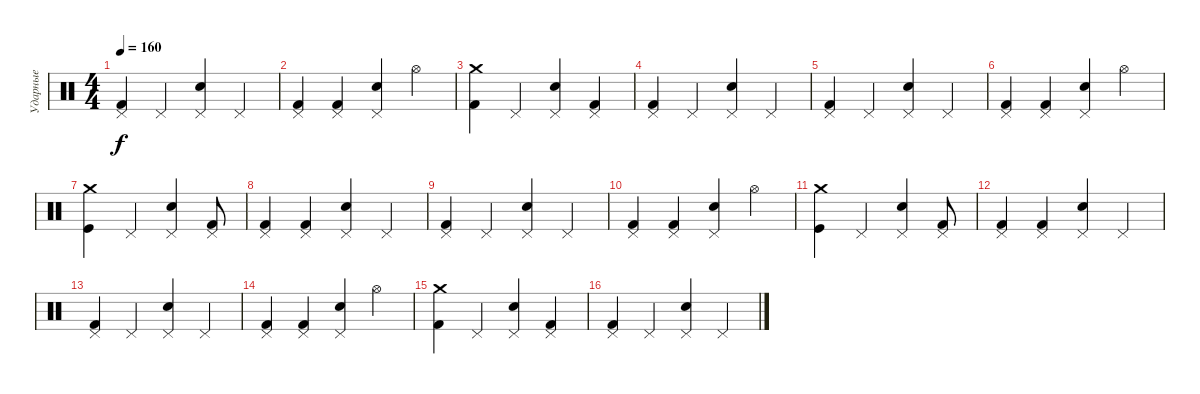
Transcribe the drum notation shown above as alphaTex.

\track ("Ударные" "Ударные") {instrument percussion}
\staff {score}
\articulation defaults
\ts (4 4)
\tempo 160
\clef neutral
\ks c
("Pedal Hi-Hat (hit)" "Kick (hit) 2").4{dy f} "Pedal Hi-Hat (hit)".4 ("Pedal Hi-Hat (hit)" "Snare (hit) 2").4 "Pedal Hi-Hat (hit)".4 |
("Pedal Hi-Hat (hit)" "Kick (hit) 2").4 ("Pedal Hi-Hat (hit)" "Kick (hit) 2").4 ("Pedal Hi-Hat (hit)" "Snare (hit) 2").4 "Hi-Hat (open)".4 |
("Crash medium (hit)" "Kick (hit) 2").4 "Pedal Hi-Hat (hit)".4 ("Pedal Hi-Hat (hit)" "Snare (hit) 2").4 ("Pedal Hi-Hat (hit)" "Kick (hit) 2").4 |
("Pedal Hi-Hat (hit)" "Kick (hit) 2").4 "Pedal Hi-Hat (hit)".4 ("Pedal Hi-Hat (hit)" "Snare (hit) 2").4 "Pedal Hi-Hat (hit)".4 |
("Pedal Hi-Hat (hit)" "Kick (hit) 2").4 "Pedal Hi-Hat (hit)".4 ("Pedal Hi-Hat (hit)" "Snare (hit) 2").4 "Pedal Hi-Hat (hit)".4 |
("Pedal Hi-Hat (hit)" "Kick (hit) 2").4 ("Pedal Hi-Hat (hit)" "Kick (hit) 2").4 ("Pedal Hi-Hat (hit)" "Snare (hit) 2").4 "Hi-Hat (open)".4 |
("Crash medium (hit)" "Kick (hit)").4 "Pedal Hi-Hat (hit)".4 ("Pedal Hi-Hat (hit)" "Snare (hit) 2").4 ("Pedal Hi-Hat (hit)" "Kick (hit) 2").8 |
("Pedal Hi-Hat (hit)" "Kick (hit) 2").4 ("Pedal Hi-Hat (hit)" "Kick (hit) 2").4 ("Pedal Hi-Hat (hit)" "Snare (hit) 2").4 "Pedal Hi-Hat (hit)".4 |
("Pedal Hi-Hat (hit)" "Kick (hit) 2").4 "Pedal Hi-Hat (hit)".4 ("Pedal Hi-Hat (hit)" "Snare (hit) 2").4 "Pedal Hi-Hat (hit)".4 |
("Pedal Hi-Hat (hit)" "Kick (hit) 2").4 ("Pedal Hi-Hat (hit)" "Kick (hit) 2").4 ("Pedal Hi-Hat (hit)" "Snare (hit) 2").4 "Hi-Hat (open)".4 |
("Crash medium (hit)" "Kick (hit)").4 "Pedal Hi-Hat (hit)".4 ("Pedal Hi-Hat (hit)" "Snare (hit) 2").4 ("Pedal Hi-Hat (hit)" "Kick (hit) 2").8 |
("Pedal Hi-Hat (hit)" "Kick (hit) 2").4 ("Pedal Hi-Hat (hit)" "Kick (hit) 2").4 ("Pedal Hi-Hat (hit)" "Snare (hit) 2").4 "Pedal Hi-Hat (hit)".4 |
("Pedal Hi-Hat (hit)" "Kick (hit) 2").4 "Pedal Hi-Hat (hit)".4 ("Pedal Hi-Hat (hit)" "Snare (hit) 2").4 "Pedal Hi-Hat (hit)".4 |
("Pedal Hi-Hat (hit)" "Kick (hit) 2").4 ("Pedal Hi-Hat (hit)" "Kick (hit) 2").4 ("Pedal Hi-Hat (hit)" "Snare (hit) 2").4 "Hi-Hat (open)".4 |
("Crash medium (hit)" "Kick (hit) 2").4 "Pedal Hi-Hat (hit)".4 ("Pedal Hi-Hat (hit)" "Snare (hit) 2").4 ("Pedal Hi-Hat (hit)" "Kick (hit) 2").4 |
("Pedal Hi-Hat (hit)" "Kick (hit) 2").4 "Pedal Hi-Hat (hit)".4 ("Pedal Hi-Hat (hit)" "Snare (hit) 2").4 "Pedal Hi-Hat (hit)".4
